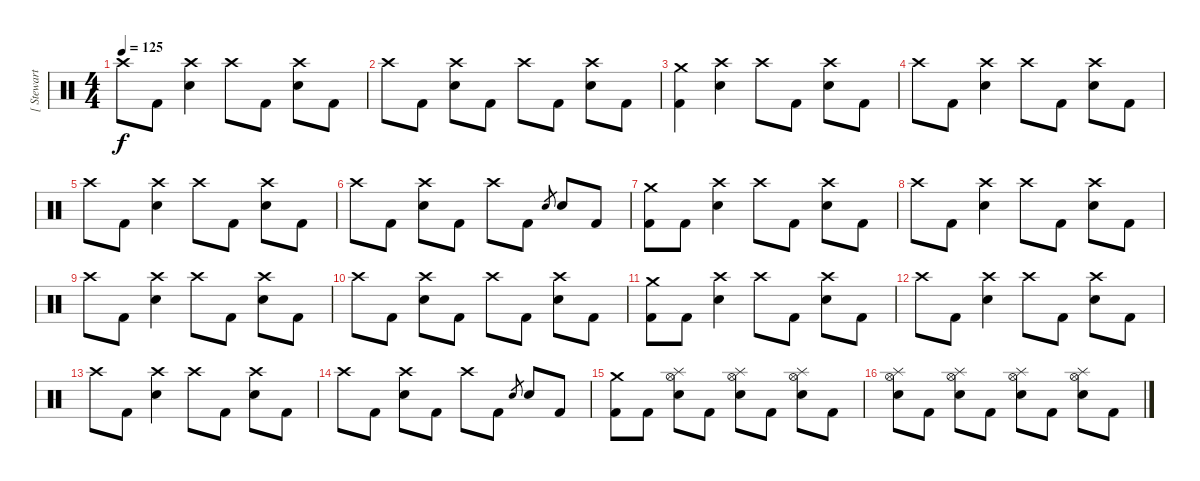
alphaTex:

\track ("[ Stewart ]" "[ Stewart ") {instrument percussion}
\staff {score}
\articulation defaults
\ts (4 4)
\tempo 125
\clef neutral
\ks c "Crash high (hit)".8{dy f} "Kick (hit) 2".8
("Electric Snare (hit)" "Crash high (hit)").4 "Crash high (hit)".8 "Kick (hit) 2".8 ("Electric Snare (hit)" "Crash high (hit)").8 "Kick (hit) 2".8 |
"Crash high (hit)".8 "Kick (hit) 2".8 ("Electric Snare (hit)" "Crash high (hit)").8 "Kick (hit) 2".8 "Crash high (hit)".8 "Kick (hit) 2".8 ("Electric Snare (hit)" "Crash high (hit)").8 "Kick (hit) 2".8 |
("Kick (hit) 2" "Crash medium (hit)").4 ("Electric Snare (hit)" "Crash high (hit)").4 "Crash high (hit)".8 "Kick (hit) 2".8 ("Electric Snare (hit)" "Crash high (hit)").8 "Kick (hit) 2".8 |
"Crash high (hit)".8 "Kick (hit) 2".8 ("Electric Snare (hit)" "Crash high (hit)").4 "Crash high (hit)".8 "Kick (hit) 2".8 ("Electric Snare (hit)" "Crash high (hit)").8 "Kick (hit) 2".8 |
"Crash high (hit)".8 "Kick (hit) 2".8 ("Electric Snare (hit)" "Crash high (hit)").4 "Crash high (hit)".8 "Kick (hit) 2".8 ("Electric Snare (hit)" "Crash high (hit)").8 "Kick (hit) 2".8 |
"Crash high (hit)".8 "Kick (hit) 2".8 ("Electric Snare (hit)" "Crash high (hit)").8 "Kick (hit) 2".8 "Crash high (hit)".8 "Kick (hit) 2".8 "Electric Snare (hit)".8{gr} "Electric Snare (hit)".8 "Kick (hit) 2".8 |
("Kick (hit) 2" "Crash medium (hit)").8 "Kick (hit) 2".8 ("Electric Snare (hit)" "Crash high (hit)").4 "Crash high (hit)".8 "Kick (hit) 2".8 ("Electric Snare (hit)" "Crash high (hit)").8 "Kick (hit) 2".8 |
"Crash high (hit)".8 "Kick (hit) 2".8 ("Electric Snare (hit)" "Crash high (hit)").4 "Crash high (hit)".8 "Kick (hit) 2".8 ("Electric Snare (hit)" "Crash high (hit)").8 "Kick (hit) 2".8 |
"Crash high (hit)".8 "Kick (hit) 2".8 ("Electric Snare (hit)" "Crash high (hit)").4 "Crash high (hit)".8 "Kick (hit) 2".8 ("Electric Snare (hit)" "Crash high (hit)").8 "Kick (hit) 2".8 |
"Crash high (hit)".8 "Kick (hit) 2".8 ("Electric Snare (hit)" "Crash high (hit)").8 "Kick (hit) 2".8 "Crash high (hit)".8 "Kick (hit) 2".8 ("Electric Snare (hit)" "Crash high (hit)").8 "Kick (hit) 2".8 |
("Kick (hit) 2" "Crash medium (hit)").8 "Kick (hit) 2".8 ("Electric Snare (hit)" "Crash high (hit)").4 "Crash high (hit)".8 "Kick (hit) 2".8 ("Electric Snare (hit)" "Crash high (hit)").8 "Kick (hit) 2".8 |
"Crash high (hit)".8 "Kick (hit) 2".8 ("Electric Snare (hit)" "Crash high (hit)").4 "Crash high (hit)".8 "Kick (hit) 2".8 ("Electric Snare (hit)" "Crash high (hit)").8 "Kick (hit) 2".8 |
"Crash high (hit)".8 "Kick (hit) 2".8 ("Electric Snare (hit)" "Crash high (hit)").4 "Crash high (hit)".8 "Kick (hit) 2".8 ("Electric Snare (hit)" "Crash high (hit)").8 "Kick (hit) 2".8 |
"Crash high (hit)".8 "Kick (hit) 2".8 ("Electric Snare (hit)" "Crash high (hit)").8 "Kick (hit) 2".8 "Crash high (hit)".8 "Kick (hit) 2".8 "Electric Snare (hit)".8{gr} "Electric Snare (hit)".8 "Kick (hit) 2".8 |
("Kick (hit) 2" "Crash medium (hit)").8 "Kick (hit) 2".8 ("Electric Snare (hit)" "Splash (hit)" "Hi-Hat (open)").8 "Kick (hit) 2".8 ("Electric Snare (hit)" "Splash (hit)" "Hi-Hat (open)").8 "Kick (hit) 2".8 ("Electric Snare (hit)" "Splash (hit)" "Hi-Hat (open)").8 "Kick (hit) 2".8 |
("Electric Snare (hit)" "Splash (hit)" "Hi-Hat (open)").8 "Kick (hit) 2".8 ("Electric Snare (hit)" "Splash (hit)" "Hi-Hat (open)").8 "Kick (hit) 2".8 ("Electric Snare (hit)" "Splash (hit)" "Hi-Hat (open)").8 "Kick (hit) 2".8 ("Electric Snare (hit)" "Splash (hit)" "Hi-Hat (open)").8 "Kick (hit) 2".8
